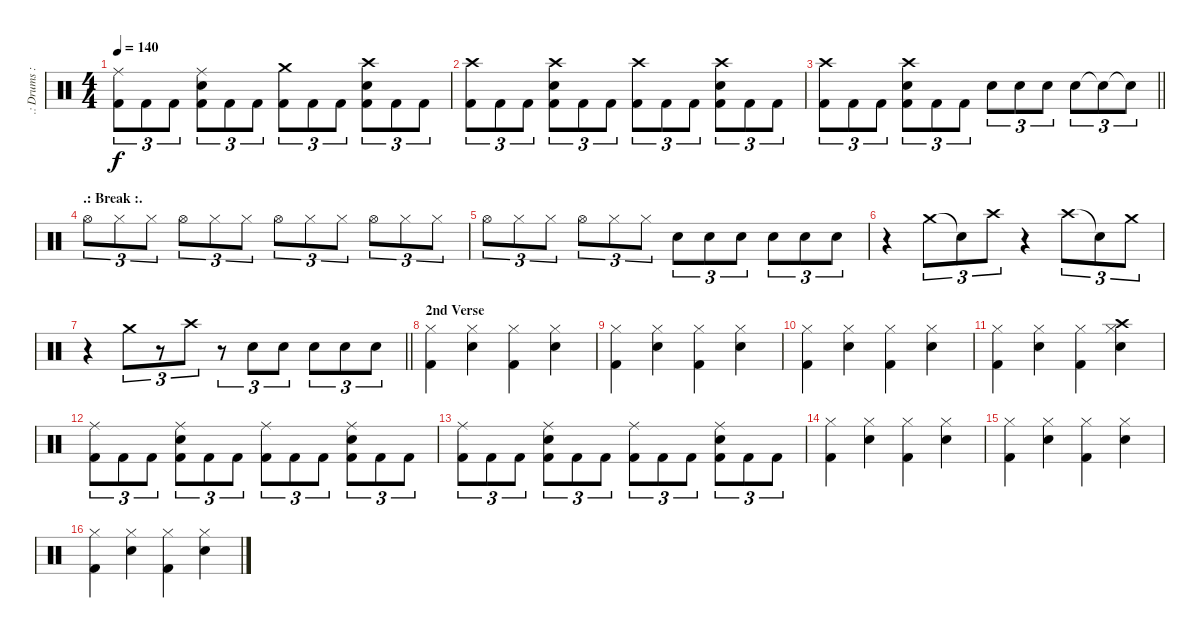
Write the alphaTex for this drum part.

\track (".: Drums :." ".: Drums :") {instrument percussion}
\staff {score}
\articulation defaults
\ts (4 4)
\tempo 140
\clef neutral
\ks c
("Ride (middle)" "Kick (hit) 2").8{tu (3 2) dy f} "Kick (hit) 2".8{tu (3 2)} "Kick (hit) 2".8{tu (3 2)} ("Ride (middle)" "Snare (hit) 2" "Kick (hit) 2").8{tu (3 2)} "Kick (hit) 2".8{tu (3 2)} "Kick (hit) 2".8{tu (3 2)} ("Crash medium (hit)" "Kick (hit) 2").8{tu (3 2)} "Kick (hit) 2".8{tu (3 2)} "Kick (hit) 2".8{tu (3 2)} ("Crash high (hit)" "Snare (hit) 2" "Kick (hit) 2").8{tu (3 2)} "Kick (hit) 2".8{tu (3 2)} "Kick (hit) 2".8{tu (3 2)} |
("Crash high (hit)" "Kick (hit) 2").8{tu (3 2)} "Kick (hit) 2".8{tu (3 2)} "Kick (hit) 2".8{tu (3 2)} ("Crash high (hit)" "Snare (hit) 2" "Kick (hit) 2").8{tu (3 2)} "Kick (hit) 2".8{tu (3 2)} "Kick (hit) 2".8{tu (3 2)} ("Crash high (hit)" "Kick (hit) 2").8{tu (3 2)} "Kick (hit) 2".8{tu (3 2)} "Kick (hit) 2".8{tu (3 2)} ("Crash high (hit)" "Snare (hit) 2" "Kick (hit) 2").8{tu (3 2)} "Kick (hit) 2".8{tu (3 2)} "Kick (hit) 2".8{tu (3 2)} |
\barLineRight lightlight
("Crash high (hit)" "Kick (hit) 2").8{tu (3 2)} "Kick (hit) 2".8{tu (3 2)} "Kick (hit) 2".8{tu (3 2)} ("Crash high (hit)" "Snare (hit) 2" "Kick (hit) 2").8{tu (3 2)} "Kick (hit) 2".8{tu (3 2)} "Kick (hit) 2".8{tu (3 2)} "Snare (hit) 2".8{tu (3 2)} "Snare (hit) 2".8{tu (3 2)} "Snare (hit) 2".8{tu (3 2)} "Snare (hit) 2".8{tu (3 2)} "Snare (hit)"{t}.8{tu (3 2)} "Snare (hit)"{t}.8{tu (3 2)} |
\section ("" ".: Break :.")
"Hi-Hat (open)".8{tu (3 2)} "Hi-Hat (closed)".8{tu (3 2)} "Hi-Hat (closed)".8{tu (3 2)} "Hi-Hat (open)".8{tu (3 2)} "Hi-Hat (closed)".8{tu (3 2)} "Hi-Hat (closed)".8{tu (3 2)} "Hi-Hat (open)".8{tu (3 2)} "Hi-Hat (closed)".8{tu (3 2)} "Hi-Hat (closed)".8{tu (3 2)} "Hi-Hat (open)".8{tu (3 2)} "Hi-Hat (closed)".8{tu (3 2)} "Hi-Hat (closed)".8{tu (3 2)} |
"Hi-Hat (open)".8{tu (3 2)} "Hi-Hat (closed)".8{tu (3 2)} "Hi-Hat (closed)".8{tu (3 2)} "Hi-Hat (open)".8{tu (3 2)} "Hi-Hat (closed)".8{tu (3 2)} "Hi-Hat (closed)".8{tu (3 2)} "Snare (hit) 2".8{tu (3 2)} "Snare (hit) 2".8{tu (3 2)} "Snare (hit) 2".8{tu (3 2)} "Snare (hit) 2".8{tu (3 2)} "Snare (hit) 2".8{tu (3 2)} "Snare (hit) 2".8{tu (3 2)} |
r.4 "Crash medium (hit)".8{tu (3 2)} "Snare (hit)"{t}.8{tu (3 2)} "Crash high (hit)".8{tu (3 2)} r.4 "Crash high (hit)".8{tu (3 2)} "Snare (hit)"{t}.8{tu (3 2)} "Crash medium (hit)".8{tu (3 2)} |
\barLineRight lightlight
r.4 "Crash medium (hit)".8{tu (3 2)} r.8{tu (3 2)} "Crash high (hit)".8{tu (3 2)} r.8{tu (3 2)} "Snare (hit) 2".8{tu (3 2)} "Snare (hit) 2".8{tu (3 2)} "Snare (hit) 2".8{tu (3 2)} "Snare (hit) 2".8{tu (3 2)} "Snare (hit) 2".8{tu (3 2)} |
\section ("" "2nd Verse")
("Hi-Hat (closed)" "Kick (hit) 2").4 ("Hi-Hat (closed)" "Snare (hit) 2").4 ("Hi-Hat (closed)" "Kick (hit) 2").4 ("Hi-Hat (closed)" "Snare (hit) 2").4 |
("Hi-Hat (closed)" "Kick (hit) 2").4 ("Hi-Hat (closed)" "Snare (hit) 2").4 ("Hi-Hat (closed)" "Kick (hit) 2").4 ("Hi-Hat (closed)" "Snare (hit) 2").4 |
("Hi-Hat (closed)" "Kick (hit) 2").4 ("Hi-Hat (closed)" "Snare (hit) 2").4 ("Hi-Hat (closed)" "Kick (hit) 2").4 ("Hi-Hat (closed)" "Snare (hit) 2").4 |
("Hi-Hat (closed)" "Kick (hit) 2").4 ("Hi-Hat (closed)" "Snare (hit) 2").4 ("Hi-Hat (closed)" "Kick (hit) 2").4 ("Hi-Hat (closed)" "Snare (hit) 2" "Crash high (hit)").4 |
("Kick (hit) 2" "Ride (middle)").8{tu (3 2)} "Kick (hit) 2".8{tu (3 2)} "Kick (hit) 2".8{tu (3 2)} ("Kick (hit) 2" "Ride (middle)" "Snare (hit) 2").8{tu (3 2)} "Kick (hit) 2".8{tu (3 2)} "Kick (hit) 2".8{tu (3 2)} ("Kick (hit) 2" "Ride (middle)").8{tu (3 2)} "Kick (hit) 2".8{tu (3 2)} "Kick (hit) 2".8{tu (3 2)} ("Kick (hit) 2" "Ride (middle)" "Snare (hit) 2").8{tu (3 2)} "Kick (hit) 2".8{tu (3 2)} "Kick (hit) 2".8{tu (3 2)} |
("Kick (hit) 2" "Ride (middle)").8{tu (3 2)} "Kick (hit) 2".8{tu (3 2)} "Kick (hit) 2".8{tu (3 2)} ("Kick (hit) 2" "Ride (middle)" "Snare (hit) 2").8{tu (3 2)} "Kick (hit) 2".8{tu (3 2)} "Kick (hit) 2".8{tu (3 2)} ("Kick (hit) 2" "Ride (middle)").8{tu (3 2)} "Kick (hit) 2".8{tu (3 2)} "Kick (hit) 2".8{tu (3 2)} ("Kick (hit) 2" "Ride (middle)" "Snare (hit) 2").8{tu (3 2)} "Kick (hit) 2".8{tu (3 2)} "Kick (hit) 2".8{tu (3 2)} |
("Hi-Hat (closed)" "Kick (hit) 2").4 ("Hi-Hat (closed)" "Snare (hit) 2").4 ("Hi-Hat (closed)" "Kick (hit) 2").4 ("Hi-Hat (closed)" "Snare (hit) 2").4 |
("Hi-Hat (closed)" "Kick (hit) 2").4 ("Hi-Hat (closed)" "Snare (hit) 2").4 ("Hi-Hat (closed)" "Kick (hit) 2").4 ("Hi-Hat (closed)" "Snare (hit) 2").4 |
("Hi-Hat (closed)" "Kick (hit) 2").4 ("Hi-Hat (closed)" "Snare (hit) 2").4 ("Hi-Hat (closed)" "Kick (hit) 2").4 ("Hi-Hat (closed)" "Snare (hit) 2").4
